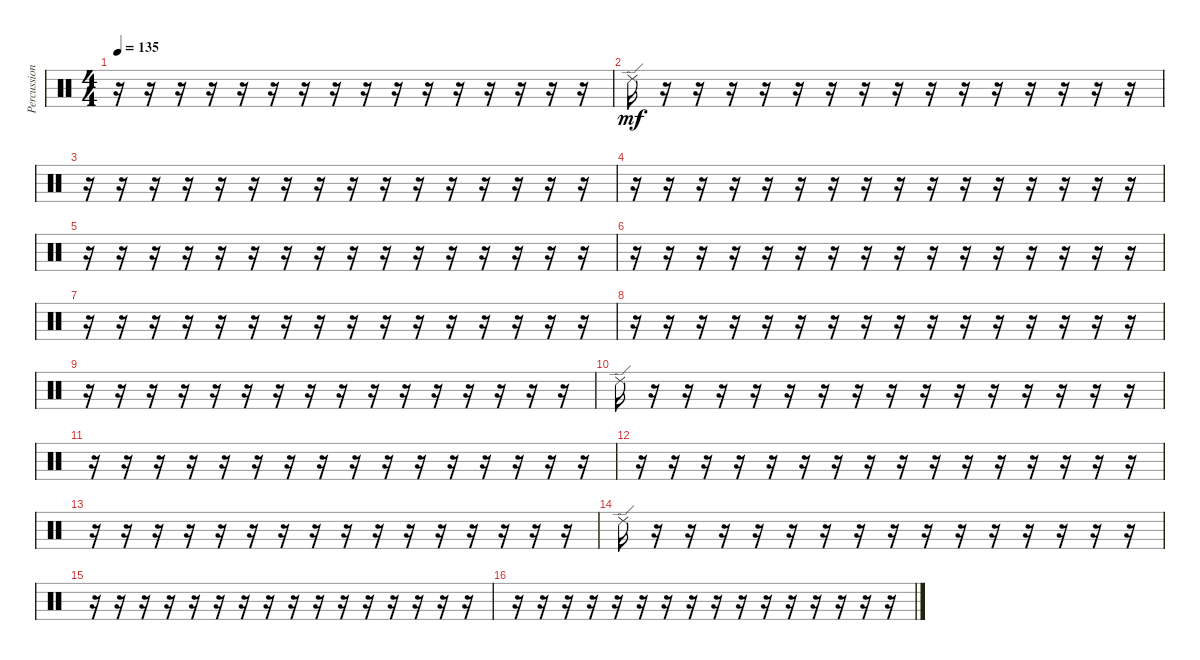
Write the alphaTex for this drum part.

\track ("Percussion (Orchestral Kit)" "Percussion") {instrument percussion}
\staff {score}
\articulation defaults
\ts (4 4)
\tempo 135
\clef neutral
\ks c
r.16{dy mf} r.16 r.16 r.16 r.16 r.16 r.16 r.16 r.16 r.16 r.16 r.16 r.16 r.16 r.16 r.16 |
"Ride (edge) 2".16 r.16 r.16 r.16 r.16 r.16 r.16 r.16 r.16 r.16 r.16 r.16 r.16 r.16 r.16 r.16 |
r.16 r.16 r.16 r.16 r.16 r.16 r.16 r.16 r.16 r.16 r.16 r.16 r.16 r.16 r.16 r.16 |
r.16 r.16 r.16 r.16 r.16 r.16 r.16 r.16 r.16 r.16 r.16 r.16 r.16 r.16 r.16 r.16 |
r.16 r.16 r.16 r.16 r.16 r.16 r.16 r.16 r.16 r.16 r.16 r.16 r.16 r.16 r.16 r.16 |
r.16 r.16 r.16 r.16 r.16 r.16 r.16 r.16 r.16 r.16 r.16 r.16 r.16 r.16 r.16 r.16 |
r.16 r.16 r.16 r.16 r.16 r.16 r.16 r.16 r.16 r.16 r.16 r.16 r.16 r.16 r.16 r.16 |
r.16 r.16 r.16 r.16 r.16 r.16 r.16 r.16 r.16 r.16 r.16 r.16 r.16 r.16 r.16 r.16 |
r.16 r.16 r.16 r.16 r.16 r.16 r.16 r.16 r.16 r.16 r.16 r.16 r.16 r.16 r.16 r.16 |
"Ride (edge) 2".16 r.16 r.16 r.16 r.16 r.16 r.16 r.16 r.16 r.16 r.16 r.16 r.16 r.16 r.16 r.16 |
r.16 r.16 r.16 r.16 r.16 r.16 r.16 r.16 r.16 r.16 r.16 r.16 r.16 r.16 r.16 r.16 |
r.16 r.16 r.16 r.16 r.16 r.16 r.16 r.16 r.16 r.16 r.16 r.16 r.16 r.16 r.16 r.16 |
r.16 r.16 r.16 r.16 r.16 r.16 r.16 r.16 r.16 r.16 r.16 r.16 r.16 r.16 r.16 r.16 |
"Ride (edge) 2".16 r.16 r.16 r.16 r.16 r.16 r.16 r.16 r.16 r.16 r.16 r.16 r.16 r.16 r.16 r.16 |
r.16 r.16 r.16 r.16 r.16 r.16 r.16 r.16 r.16 r.16 r.16 r.16 r.16 r.16 r.16 r.16 |
r.16 r.16 r.16 r.16 r.16 r.16 r.16 r.16 r.16 r.16 r.16 r.16 r.16 r.16 r.16 r.16
